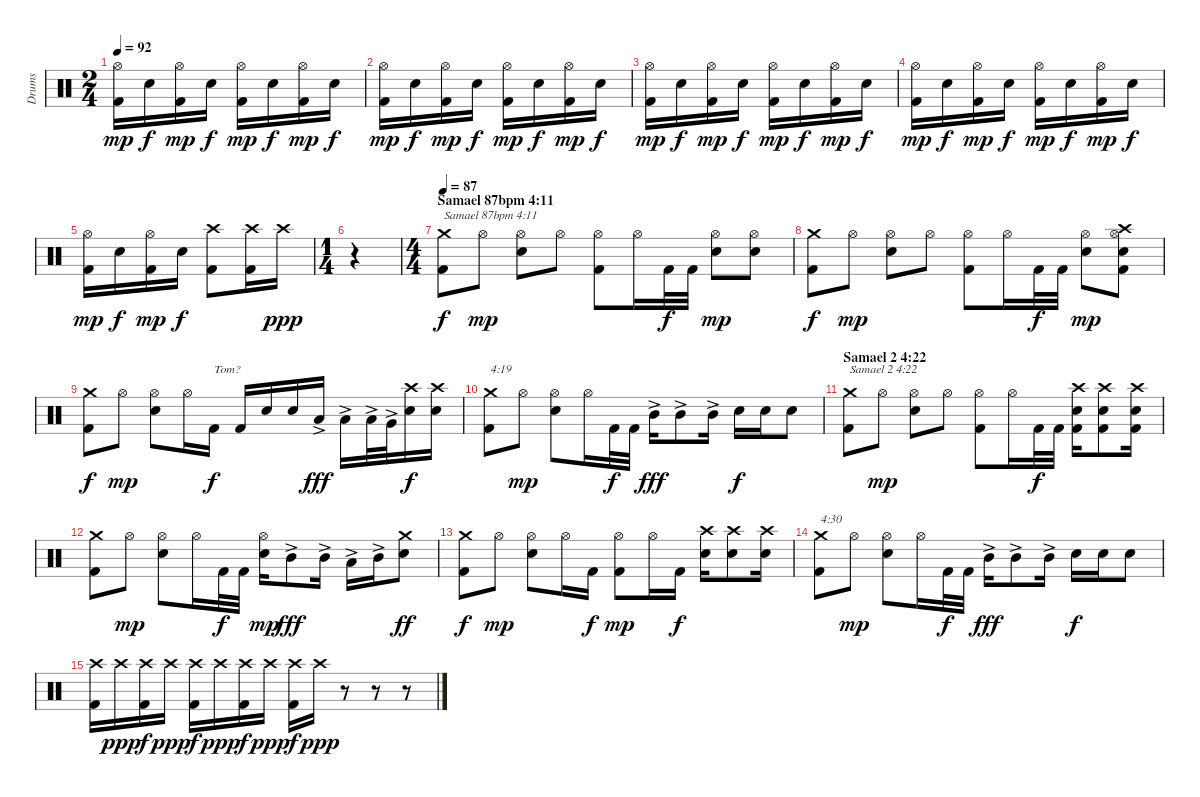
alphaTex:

\track ("Drums" "Drums") {instrument percussion}
\staff {score}
\articulation defaults
\ts (2 4)
\tempo 92
\clef neutral
\ks c
("Kick (hit) 2" "Hi-Hat (open)").16{dy mp} "Electric Snare (hit)".16{dy f} ("Kick (hit) 2" "Hi-Hat (open)").16{dy mp} "Electric Snare (hit)".16{dy f} ("Kick (hit) 2" "Hi-Hat (open)").16{dy mp} "Electric Snare (hit)".16{dy f} ("Kick (hit) 2" "Hi-Hat (open)").16{dy mp} "Electric Snare (hit)".16{dy f} |
("Kick (hit) 2" "Hi-Hat (open)").16{dy mp} "Electric Snare (hit)".16{dy f} ("Kick (hit) 2" "Hi-Hat (open)").16{dy mp} "Electric Snare (hit)".16{dy f} ("Kick (hit) 2" "Hi-Hat (open)").16{dy mp} "Electric Snare (hit)".16{dy f} ("Kick (hit) 2" "Hi-Hat (open)").16{dy mp} "Electric Snare (hit)".16{dy f} |
("Kick (hit) 2" "Hi-Hat (open)").16{dy mp} "Electric Snare (hit)".16{dy f} ("Kick (hit) 2" "Hi-Hat (open)").16{dy mp} "Electric Snare (hit)".16{dy f} ("Kick (hit) 2" "Hi-Hat (open)").16{dy mp} "Electric Snare (hit)".16{dy f} ("Kick (hit) 2" "Hi-Hat (open)").16{dy mp} "Electric Snare (hit)".16{dy f} |
("Kick (hit) 2" "Hi-Hat (open)").16{dy mp} "Electric Snare (hit)".16{dy f} ("Kick (hit) 2" "Hi-Hat (open)").16{dy mp} "Electric Snare (hit)".16{dy f} ("Kick (hit) 2" "Hi-Hat (open)").16{dy mp} "Electric Snare (hit)".16{dy f} ("Kick (hit) 2" "Hi-Hat (open)").16{dy mp} "Electric Snare (hit)".16{dy f} |
("Kick (hit) 2" "Hi-Hat (open)").16{dy mp} "Electric Snare (hit)".16{dy f} ("Kick (hit) 2" "Hi-Hat (open)").16{dy mp} "Electric Snare (hit)".16{dy f} ("Kick (hit) 2" "Crash high (hit)").8 ("Kick (hit) 2" "Crash high (hit)").16 "Crash high (hit)".16{dy ppp} |
\ts (1 4)
r.4 |
\ts (4 4)
\section ("" "Samael 87bpm 4:11 ")
\tempo 87
("Kick (hit) 2" "Crash medium (hit)").8{txt "Samael 87bpm 4:11 " dy f} "Hi-Hat (open)".8{dy mp} ("Electric Snare (hit)" "Hi-Hat (open)").8 "Hi-Hat (open)".8 ("Kick (hit) 2" "Hi-Hat (open)").8 "Hi-Hat (open)".16 "Kick (hit) 2".32{dy f} "Kick (hit) 2".32 ("Electric Snare (hit)" "Hi-Hat (open)").8{dy mp} ("Electric Snare (hit)" "Hi-Hat (open)").8 |
("Kick (hit) 2" "Crash medium (hit)").8{dy f} "Hi-Hat (open)".8{dy mp} ("Electric Snare (hit)" "Hi-Hat (open)").8 "Hi-Hat (open)".8 ("Kick (hit) 2" "Hi-Hat (open)").8 "Hi-Hat (open)".16 "Kick (hit) 2".32{dy f} "Kick (hit) 2".32 ("Electric Snare (hit)" "Hi-Hat (open)").8{dy mp} ("Kick (hit) 2" "Electric Snare (hit)" "Hi-Hat (open)" "Crash high (hit)").8 |
("Kick (hit) 2" "Crash medium (hit)").8{dy f} "Hi-Hat (open)".8{dy mp} ("Electric Snare (hit)" "Hi-Hat (open)").8 "Hi-Hat (open)".16 "Kick (hit) 2".16{txt "Tom?" dy f} "Kick (hit) 2".16 "Electric Snare (hit)".16 "Electric Snare (hit)".16 "Low Tom (hit)"{ac}.16{dy fff} "Low Tom (hit)"{ac}.16 "Low Tom (hit)"{ac}.32 "Very Low Tom (hit)"{ac}.32 ("Electric Snare (hit)" "Crash high (hit)").16{dy f} ("Electric Snare (hit)" "Crash high (hit)").16 |
("Kick (hit) 2" "Crash medium (hit)").8{txt "4:19"} "Hi-Hat (open)".8{dy mp} ("Electric Snare (hit)" "Hi-Hat (open)").8 "Hi-Hat (open)".16 "Kick (hit) 2".32{dy f} "Kick (hit) 2".32 "Mid Tom (hit)"{ac}.16{dy fff} "Mid Tom (hit)"{ac}.8 "Mid Tom (hit)"{ac}.16 "Electric Snare (hit)".16{dy f} "Electric Snare (hit)".16 "Electric Snare (hit)".8 |
\section ("" "Samael 2 4:22")
("Kick (hit) 2" "Crash medium (hit)").8{txt "Samael 2 4:22"} "Hi-Hat (open)".8{dy mp} ("Electric Snare (hit)" "Hi-Hat (open)").8 "Hi-Hat (open)".8 ("Kick (hit) 2" "Hi-Hat (open)").8 "Hi-Hat (open)".16 "Kick (hit) 2".32{dy f} "Kick (hit) 2".32 ("Kick (hit) 2" "Electric Snare (hit)" "Crash high (hit)").16 ("Kick (hit) 2" "Electric Snare (hit)" "Crash high (hit)").8 ("Kick (hit) 2" "Electric Snare (hit)" "Crash high (hit)").16 |
("Kick (hit) 2" "Crash medium (hit)").8 "Hi-Hat (open)".8{dy mp} ("Electric Snare (hit)" "Hi-Hat (open)").8 "Hi-Hat (open)".16 "Kick (hit) 2".32{dy f} "Kick (hit) 2".32 ("Electric Snare (hit)" "Hi-Hat (open)").16{dy mp} "Mid Tom (hit)"{ac}.8{dy fff} "Mid Tom (hit)"{ac}.16 "Low Tom (hit)"{ac}.16 "Mid Tom (hit)"{ac}.16 ("Electric Snare (hit)" "Crash medium (hit)").8{dy ff} |
("Kick (hit) 2" "Crash medium (hit)").8{dy f} "Hi-Hat (open)".8{dy mp} ("Electric Snare (hit)" "Hi-Hat (open)").8 "Hi-Hat (open)".16 "Kick (hit) 2".16{dy f} ("Kick (hit) 2" "Hi-Hat (open)").8{dy mp} "Hi-Hat (open)".16 "Kick (hit) 2".16{dy f} ("Electric Snare (hit)" "Crash high (hit)").16 ("Electric Snare (hit)" "Crash high (hit)").8 ("Electric Snare (hit)" "Crash high (hit)").16 |
("Kick (hit) 2" "Crash medium (hit)").8{txt "4:30"} "Hi-Hat (open)".8{dy mp} ("Electric Snare (hit)" "Hi-Hat (open)").8 "Hi-Hat (open)".16 "Kick (hit) 2".32{dy f} "Kick (hit) 2".32 "Mid Tom (hit)"{ac}.16{dy fff} "Mid Tom (hit)"{ac}.8 "Mid Tom (hit)"{ac}.16 "Electric Snare (hit)".16{dy f} "Electric Snare (hit)".16 "Electric Snare (hit)".8 |
("Kick (hit) 2" "Crash high (hit)").16 "Crash high (hit)".16{dy ppp} ("Kick (hit) 2" "Crash high (hit)").16{dy f} "Crash high (hit)".16{dy ppp} ("Kick (hit) 2" "Crash high (hit)").16{dy f} "Crash high (hit)".16{dy ppp} ("Kick (hit) 2" "Crash high (hit)").16{dy f} "Crash high (hit)".16{dy ppp} ("Kick (hit) 2" "Crash high (hit)").16{dy f} "Crash high (hit)".16{dy ppp} r.8 r.8 r.8
